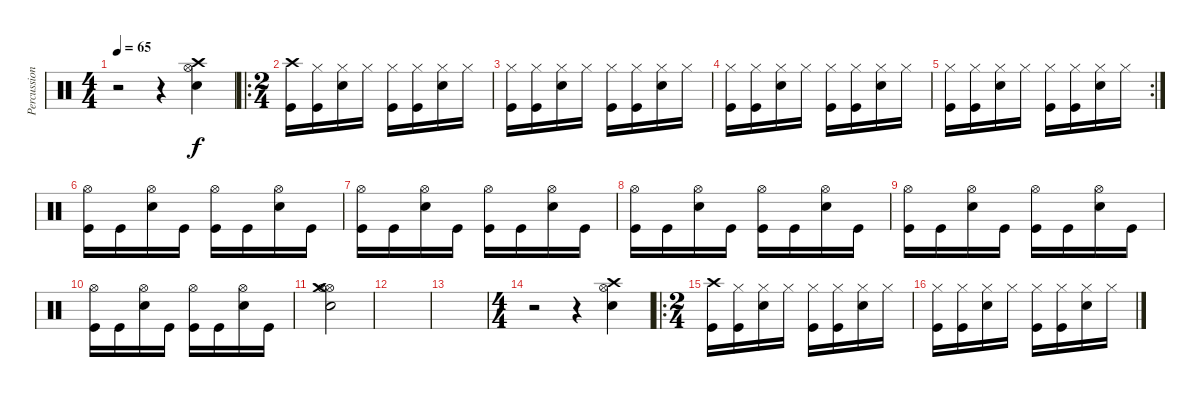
\track ("Percussion" "Percussion") {instrument percussion}
\staff {score}
\articulation defaults
\ts (4 4)
\tempo 65
\clef neutral
\ks c
r.2{dy f} r.4 ("Crash high (hit)" "Hi-Hat (open)" "Electric Snare (hit)").4 |
\ro
\ts (2 4)
("Crash high (hit)" "Kick (hit)").16 ("Hi-Hat (closed)"{pm} "Kick (hit)").16 ("Hi-Hat (closed)"{pm} "Electric Snare (hit)").16 "Hi-Hat (closed)".16 ("Hi-Hat (closed)" "Kick (hit)").16 ("Hi-Hat (closed)"{pm} "Kick (hit)").16 ("Hi-Hat (closed)"{pm} "Electric Snare (hit)").16 "Hi-Hat (closed)".16 |
("Hi-Hat (closed)" "Kick (hit)").16 ("Hi-Hat (closed)"{pm} "Kick (hit)").16 ("Hi-Hat (closed)"{pm} "Electric Snare (hit)").16 "Hi-Hat (closed)".16 ("Hi-Hat (closed)" "Kick (hit)").16 ("Hi-Hat (closed)"{pm} "Kick (hit)").16 ("Hi-Hat (closed)"{pm} "Electric Snare (hit)").16 "Hi-Hat (closed)".16 |
("Hi-Hat (closed)" "Kick (hit)").16 ("Hi-Hat (closed)" "Kick (hit)").16 ("Hi-Hat (closed)" "Electric Snare (hit)").16 "Hi-Hat (closed)".16 ("Hi-Hat (closed)" "Kick (hit)").16 ("Hi-Hat (closed)" "Kick (hit)").16 ("Hi-Hat (closed)" "Electric Snare (hit)").16 "Hi-Hat (closed)".16 |
\rc 2
("Hi-Hat (closed)" "Kick (hit)").16 ("Hi-Hat (closed)" "Kick (hit)").16 ("Hi-Hat (closed)" "Electric Snare (hit)").16 "Hi-Hat (closed)".16 ("Hi-Hat (closed)" "Kick (hit)").16 ("Hi-Hat (closed)" "Kick (hit)").16 ("Hi-Hat (closed)" "Electric Snare (hit)").16 "Hi-Hat (closed)".16 |
("Hi-Hat (open)" "Kick (hit)").16 "Kick (hit)".16 ("Hi-Hat (open)" "Electric Snare (hit)").16 "Kick (hit)".16 ("Hi-Hat (open)" "Kick (hit)").16 "Kick (hit)".16 ("Hi-Hat (open)" "Electric Snare (hit)").16 "Kick (hit)".16 |
("Hi-Hat (open)" "Kick (hit)").16 "Kick (hit)".16 ("Hi-Hat (open)" "Electric Snare (hit)").16 "Kick (hit)".16 ("Hi-Hat (open)" "Kick (hit)").16 "Kick (hit)".16 ("Hi-Hat (open)" "Electric Snare (hit)").16 "Kick (hit)".16 |
("Hi-Hat (open)" "Kick (hit)").16 "Kick (hit)".16 ("Hi-Hat (open)" "Electric Snare (hit)").16 "Kick (hit)".16 ("Hi-Hat (open)" "Kick (hit)").16 "Kick (hit)".16 ("Hi-Hat (open)" "Electric Snare (hit)").16 "Kick (hit)".16 |
("Hi-Hat (open)" "Kick (hit)").16 "Kick (hit)".16 ("Hi-Hat (open)" "Electric Snare (hit)").16 "Kick (hit)".16 ("Hi-Hat (open)" "Kick (hit)").16 "Kick (hit)".16 ("Hi-Hat (open)" "Electric Snare (hit)").16 "Kick (hit)".16 |
("Hi-Hat (open)" "Kick (hit)").16 "Kick (hit)".16 ("Hi-Hat (open)" "Electric Snare (hit)").16 "Kick (hit)".16 ("Hi-Hat (open)" "Kick (hit)").16 "Kick (hit)".16 ("Hi-Hat (open)" "Electric Snare (hit)").16 "Kick (hit)".16 |
("Hi-Hat (open)" "Hi-Hat (open)" "Electric Snare (hit)" "Crash medium (hit)").2 |
|
|
\ts (4 4)
r.2 r.4 ("Crash high (hit)" "Hi-Hat (open)" "Electric Snare (hit)").4 |
\ro
\ts (2 4)
("Crash high (hit)" "Kick (hit)").16 ("Hi-Hat (closed)"{pm} "Kick (hit)").16 ("Hi-Hat (closed)"{pm} "Electric Snare (hit)").16 "Hi-Hat (closed)".16 ("Hi-Hat (closed)" "Kick (hit)").16 ("Hi-Hat (closed)"{pm} "Kick (hit)").16 ("Hi-Hat (closed)"{pm} "Electric Snare (hit)").16 "Hi-Hat (closed)".16 |
("Hi-Hat (closed)" "Kick (hit)").16 ("Hi-Hat (closed)"{pm} "Kick (hit)").16 ("Hi-Hat (closed)"{pm} "Electric Snare (hit)").16 "Hi-Hat (closed)".16 ("Hi-Hat (closed)" "Kick (hit)").16 ("Hi-Hat (closed)"{pm} "Kick (hit)").16 ("Hi-Hat (closed)"{pm} "Electric Snare (hit)").16 "Hi-Hat (closed)".16
